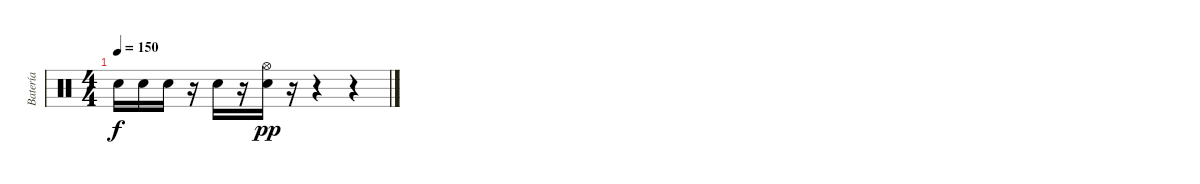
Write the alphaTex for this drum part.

\track ("Batería" "Batería") {instrument percussion}
\staff {score}
\articulation defaults
\ts (4 4)
\tempo 150
\clef neutral
\ks c "Electric Snare (hit)".16{dy f} "Electric Snare (hit)".16 "Electric Snare (hit)".16
r.16 "Electric Snare (hit)".16 r.16 ("Electric Snare (hit)" "Hi-Hat (open)").16{dy pp} r.16 r.4 r.4
